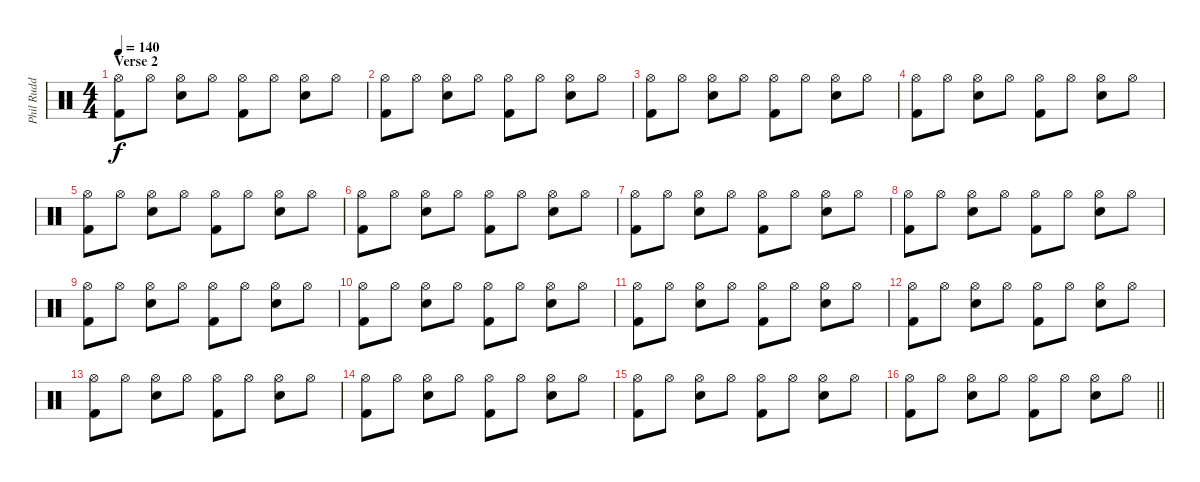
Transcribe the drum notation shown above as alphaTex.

\track ("Phil Rudd" "Phil Rudd") {instrument percussion}
\staff {score}
\articulation defaults
\ts (4 4)
\section ("" "Verse 2")
\tempo 140
\clef neutral
\ks c
("Hi-Hat (open)" "Kick (hit) 2").8{dy f} "Hi-Hat (open)".8 ("Hi-Hat (open)" "Snare (hit) 2").8 "Hi-Hat (open)".8 ("Hi-Hat (open)" "Kick (hit) 2").8 "Hi-Hat (open)".8 ("Hi-Hat (open)" "Snare (hit) 2").8 "Hi-Hat (open)".8 |
("Hi-Hat (open)" "Kick (hit) 2").8 "Hi-Hat (open)".8 ("Hi-Hat (open)" "Snare (hit) 2").8 "Hi-Hat (open)".8 ("Hi-Hat (open)" "Kick (hit) 2").8 "Hi-Hat (open)".8 ("Hi-Hat (open)" "Snare (hit) 2").8 "Hi-Hat (open)".8 |
("Hi-Hat (open)" "Kick (hit) 2").8 "Hi-Hat (open)".8 ("Hi-Hat (open)" "Snare (hit) 2").8 "Hi-Hat (open)".8 ("Hi-Hat (open)" "Kick (hit) 2").8 "Hi-Hat (open)".8 ("Hi-Hat (open)" "Snare (hit) 2").8 "Hi-Hat (open)".8 |
("Hi-Hat (open)" "Kick (hit) 2").8 "Hi-Hat (open)".8 ("Hi-Hat (open)" "Snare (hit) 2").8 "Hi-Hat (open)".8 ("Hi-Hat (open)" "Kick (hit) 2").8 "Hi-Hat (open)".8 ("Hi-Hat (open)" "Snare (hit) 2").8 "Hi-Hat (open)".8 |
("Hi-Hat (open)" "Kick (hit) 2").8 "Hi-Hat (open)".8 ("Hi-Hat (open)" "Snare (hit) 2").8 "Hi-Hat (open)".8 ("Hi-Hat (open)" "Kick (hit) 2").8 "Hi-Hat (open)".8 ("Hi-Hat (open)" "Snare (hit) 2").8 "Hi-Hat (open)".8 |
("Hi-Hat (open)" "Kick (hit) 2").8 "Hi-Hat (open)".8 ("Hi-Hat (open)" "Snare (hit) 2").8 "Hi-Hat (open)".8 ("Hi-Hat (open)" "Kick (hit) 2").8 "Hi-Hat (open)".8 ("Hi-Hat (open)" "Snare (hit) 2").8 "Hi-Hat (open)".8 |
("Hi-Hat (open)" "Kick (hit) 2").8 "Hi-Hat (open)".8 ("Hi-Hat (open)" "Snare (hit) 2").8 "Hi-Hat (open)".8 ("Hi-Hat (open)" "Kick (hit) 2").8 "Hi-Hat (open)".8 ("Hi-Hat (open)" "Snare (hit) 2").8 "Hi-Hat (open)".8 |
("Hi-Hat (open)" "Kick (hit) 2").8 "Hi-Hat (open)".8 ("Hi-Hat (open)" "Snare (hit) 2").8 "Hi-Hat (open)".8 ("Hi-Hat (open)" "Kick (hit) 2").8 "Hi-Hat (open)".8 ("Hi-Hat (open)" "Snare (hit) 2").8 "Hi-Hat (open)".8 |
("Hi-Hat (open)" "Kick (hit) 2").8 "Hi-Hat (open)".8 ("Hi-Hat (open)" "Snare (hit) 2").8 "Hi-Hat (open)".8 ("Hi-Hat (open)" "Kick (hit) 2").8 "Hi-Hat (open)".8 ("Hi-Hat (open)" "Snare (hit) 2").8 "Hi-Hat (open)".8 |
("Hi-Hat (open)" "Kick (hit) 2").8 "Hi-Hat (open)".8 ("Hi-Hat (open)" "Snare (hit) 2").8 "Hi-Hat (open)".8 ("Hi-Hat (open)" "Kick (hit) 2").8 "Hi-Hat (open)".8 ("Hi-Hat (open)" "Snare (hit) 2").8 "Hi-Hat (open)".8 |
("Hi-Hat (open)" "Kick (hit) 2").8 "Hi-Hat (open)".8 ("Hi-Hat (open)" "Snare (hit) 2").8 "Hi-Hat (open)".8 ("Hi-Hat (open)" "Kick (hit) 2").8 "Hi-Hat (open)".8 ("Hi-Hat (open)" "Snare (hit) 2").8 "Hi-Hat (open)".8 |
("Hi-Hat (open)" "Kick (hit) 2").8 "Hi-Hat (open)".8 ("Hi-Hat (open)" "Snare (hit) 2").8 "Hi-Hat (open)".8 ("Hi-Hat (open)" "Kick (hit) 2").8 "Hi-Hat (open)".8 ("Hi-Hat (open)" "Snare (hit) 2").8 "Hi-Hat (open)".8 |
("Hi-Hat (open)" "Kick (hit) 2").8 "Hi-Hat (open)".8 ("Hi-Hat (open)" "Snare (hit) 2").8 "Hi-Hat (open)".8 ("Hi-Hat (open)" "Kick (hit) 2").8 "Hi-Hat (open)".8 ("Hi-Hat (open)" "Snare (hit) 2").8 "Hi-Hat (open)".8 |
("Hi-Hat (open)" "Kick (hit) 2").8 "Hi-Hat (open)".8 ("Hi-Hat (open)" "Snare (hit) 2").8 "Hi-Hat (open)".8 ("Hi-Hat (open)" "Kick (hit) 2").8 "Hi-Hat (open)".8 ("Hi-Hat (open)" "Snare (hit) 2").8 "Hi-Hat (open)".8 |
("Hi-Hat (open)" "Kick (hit) 2").8 "Hi-Hat (open)".8 ("Hi-Hat (open)" "Snare (hit) 2").8 "Hi-Hat (open)".8 ("Hi-Hat (open)" "Kick (hit) 2").8 "Hi-Hat (open)".8 ("Hi-Hat (open)" "Snare (hit) 2").8 "Hi-Hat (open)".8 |
\barLineRight lightlight
("Hi-Hat (open)" "Kick (hit) 2").8 "Hi-Hat (open)".8 ("Hi-Hat (open)" "Snare (hit) 2").8 "Hi-Hat (open)".8 ("Hi-Hat (open)" "Kick (hit) 2").8 "Hi-Hat (open)".8 ("Hi-Hat (open)" "Snare (hit) 2").8 "Hi-Hat (open)".8
